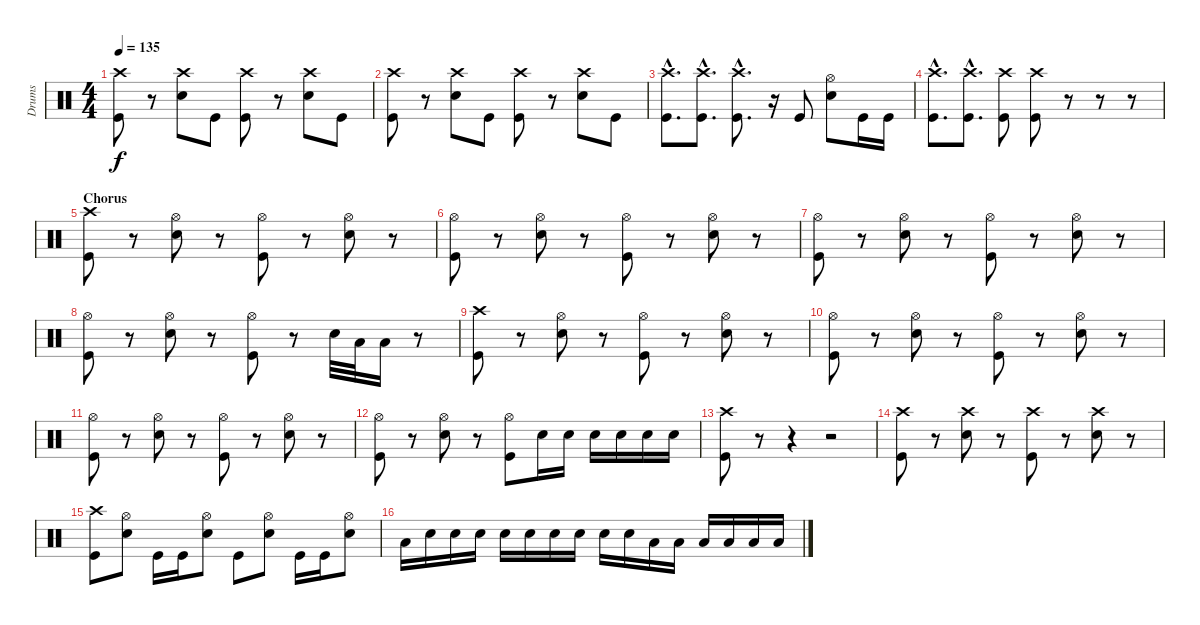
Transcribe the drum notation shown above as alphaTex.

\track ("Drums" "Drums") {instrument percussion}
\staff {score}
\articulation defaults
\ts (4 4)
\tempo 135
\clef neutral
\ks c
("Crash high (hit)" "Kick (hit)").8{dy f} r.8 ("Crash high (hit)" "Snare (hit) 2").8 "Kick (hit)".8 ("Crash high (hit)" "Kick (hit)").8 r.8 ("Crash high (hit)" "Snare (hit) 2").8 "Kick (hit)".8 |
("Crash high (hit)" "Kick (hit)").8 r.8 ("Crash high (hit)" "Snare (hit) 2").8 "Kick (hit)".8 ("Crash high (hit)" "Kick (hit)").8 r.8 ("Crash high (hit)" "Snare (hit) 2").8 "Kick (hit)".8 |
("Crash high (hit)"{hac} "Kick (hit)"{hac}).8{d} ("Crash high (hit)"{hac} "Kick (hit)"{hac}).8{d} ("Crash high (hit)"{hac} "Kick (hit)"{hac}).8{d} r.16 "Kick (hit)".8 ("Hi-Hat (open)" "Snare (hit) 2").8 "Kick (hit)".16 "Kick (hit)".16 |
("Crash high (hit)"{hac} "Kick (hit)"{hac}).8{d} ("Crash high (hit)"{hac} "Kick (hit)"{hac}).8{d} ("Crash high (hit)" "Kick (hit)").8 ("Crash high (hit)" "Kick (hit)").8 r.8 r.8 r.8 |
\section ("" "Chorus")
("Crash high (hit)" "Kick (hit)").8 r.8 ("Hi-Hat (open)" "Snare (hit) 2").8 r.8 ("Hi-Hat (open)" "Kick (hit)").8 r.8 ("Hi-Hat (open)" "Snare (hit) 2").8 r.8 |
("Hi-Hat (open)" "Kick (hit)").8 r.8 ("Hi-Hat (open)" "Snare (hit) 2").8 r.8 ("Hi-Hat (open)" "Kick (hit)").8 r.8 ("Hi-Hat (open)" "Snare (hit) 2").8 r.8 |
("Hi-Hat (open)" "Kick (hit)").8 r.8 ("Hi-Hat (open)" "Snare (hit) 2").8 r.8 ("Hi-Hat (open)" "Kick (hit)").8 r.8 ("Hi-Hat (open)" "Snare (hit) 2").8 r.8 |
("Hi-Hat (open)" "Kick (hit)").8 r.8 ("Hi-Hat (open)" "Snare (hit) 2").8 r.8 ("Hi-Hat (open)" "Kick (hit)").8 r.8 "Snare (hit) 2".32 "Low Tom (hit)".32 "Low Floor Tom (hit)".16 r.8 |
("Crash high (hit)" "Kick (hit)").8 r.8 ("Hi-Hat (open)" "Snare (hit) 2").8 r.8 ("Hi-Hat (open)" "Kick (hit)").8 r.8 ("Hi-Hat (open)" "Snare (hit) 2").8 r.8 |
("Hi-Hat (open)" "Kick (hit)").8 r.8 ("Hi-Hat (open)" "Snare (hit) 2").8 r.8 ("Hi-Hat (open)" "Kick (hit)").8 r.8 ("Hi-Hat (open)" "Snare (hit) 2").8 r.8 |
("Hi-Hat (open)" "Kick (hit)").8 r.8 ("Hi-Hat (open)" "Snare (hit) 2").8 r.8 ("Hi-Hat (open)" "Kick (hit)").8 r.8 ("Hi-Hat (open)" "Snare (hit) 2").8 r.8 |
("Hi-Hat (open)" "Kick (hit)").8 r.8 ("Hi-Hat (open)" "Snare (hit) 2").8 r.8 ("Hi-Hat (open)" "Kick (hit)").8 "Snare (hit) 2".16 "Snare (hit) 2".16 "Snare (hit) 2".16 "Snare (hit) 2".16 "Snare (hit) 2".16 "Snare (hit) 2".16 |
("Crash high (hit)" "Kick (hit)").8 r.8 r.4 r.2 |
("Crash high (hit)" "Kick (hit)").8 r.8 ("Crash high (hit)" "Snare (hit) 2").8 r.8 ("Crash high (hit)" "Kick (hit)").8 r.8 ("Crash high (hit)" "Snare (hit) 2").8 r.8 |
("Crash high (hit)" "Kick (hit)").8 ("Hi-Hat (open)" "Snare (hit) 2").8 "Kick (hit)".16 "Kick (hit)".16 ("Hi-Hat (open)" "Snare (hit) 2").8 "Kick (hit)".8 ("Hi-Hat (open)" "Snare (hit) 2").8 "Kick (hit)".16 "Kick (hit)".16 ("Hi-Hat (open)" "Snare (hit) 2").8 |
"Low Tom (hit)".16 "Snare (hit) 2".16 "Snare (hit) 2".16 "Snare (hit) 2".16 "Snare (hit) 2".16 "Snare (hit) 2".16 "Snare (hit) 2".16 "Snare (hit) 2".16 "Snare (hit) 2".16 "Snare (hit) 2".16 "Low Tom (hit)".16 "Low Tom (hit)".16 "Low Tom (hit)".16 "Low Floor Tom (hit)".16 "Low Floor Tom (hit)".16 "Low Floor Tom (hit)".16
